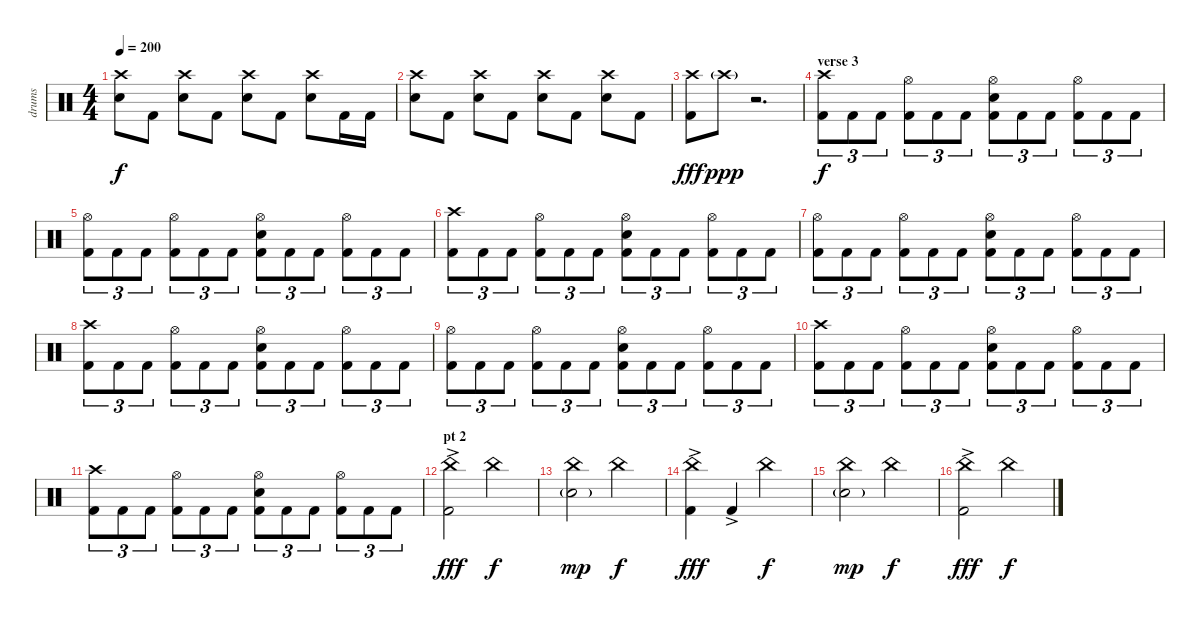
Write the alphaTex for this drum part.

\track ("drums" "drums") {instrument percussion}
\staff {score}
\articulation defaults
\ts (4 4)
\tempo 200
\clef neutral
\ks c
("Crash high (hit)" "Electric Snare (hit)").8{dy f} "Kick (hit) 2".8 ("Crash high (hit)" "Electric Snare (hit)").8 "Kick (hit) 2".8 ("Crash high (hit)" "Electric Snare (hit)").8 "Kick (hit) 2".8 ("Crash high (hit)" "Electric Snare (hit)").8 "Kick (hit) 2".16 "Kick (hit) 2".16 |
("Crash high (hit)" "Electric Snare (hit)").8 "Kick (hit) 2".8 ("Crash high (hit)" "Electric Snare (hit)").8 "Kick (hit) 2".8 ("Crash high (hit)" "Electric Snare (hit)").8 "Kick (hit) 2".8 ("Crash high (hit)" "Electric Snare (hit)").8 "Kick (hit) 2".8 |
("Crash high (hit)"{pm} "Kick (hit) 2").8{dy fff} "Crash high (hit)"{g}.8{dy ppp} r.2{d} |
\section ("" "verse 3")
("Crash high (hit)" "Kick (hit) 2").8{tu (3 2) dy f} "Kick (hit) 2".8{tu (3 2)} "Kick (hit) 2".8{tu (3 2)} ("Hi-Hat (open)" "Kick (hit) 2").8{tu (3 2)} "Kick (hit) 2".8{tu (3 2)} "Kick (hit) 2".8{tu (3 2)} ("Hi-Hat (open)" "Electric Snare (hit)" "Kick (hit) 2").8{tu (3 2)} "Kick (hit) 2".8{tu (3 2)} "Kick (hit) 2".8{tu (3 2)} ("Hi-Hat (open)" "Kick (hit) 2").8{tu (3 2)} "Kick (hit) 2".8{tu (3 2)} "Kick (hit) 2".8{tu (3 2)} |
("Hi-Hat (open)" "Kick (hit) 2").8{tu (3 2)} "Kick (hit) 2".8{tu (3 2)} "Kick (hit) 2".8{tu (3 2)} ("Hi-Hat (open)" "Kick (hit) 2").8{tu (3 2)} "Kick (hit) 2".8{tu (3 2)} "Kick (hit) 2".8{tu (3 2)} ("Hi-Hat (open)" "Electric Snare (hit)" "Kick (hit) 2").8{tu (3 2)} "Kick (hit) 2".8{tu (3 2)} "Kick (hit) 2".8{tu (3 2)} ("Hi-Hat (open)" "Kick (hit) 2").8{tu (3 2)} "Kick (hit) 2".8{tu (3 2)} "Kick (hit) 2".8{tu (3 2)} |
("Crash high (hit)" "Kick (hit) 2").8{tu (3 2)} "Kick (hit) 2".8{tu (3 2)} "Kick (hit) 2".8{tu (3 2)} ("Hi-Hat (open)" "Kick (hit) 2").8{tu (3 2)} "Kick (hit) 2".8{tu (3 2)} "Kick (hit) 2".8{tu (3 2)} ("Hi-Hat (open)" "Electric Snare (hit)" "Kick (hit) 2").8{tu (3 2)} "Kick (hit) 2".8{tu (3 2)} "Kick (hit) 2".8{tu (3 2)} ("Hi-Hat (open)" "Kick (hit) 2").8{tu (3 2)} "Kick (hit) 2".8{tu (3 2)} "Kick (hit) 2".8{tu (3 2)} |
("Hi-Hat (open)" "Kick (hit) 2").8{tu (3 2)} "Kick (hit) 2".8{tu (3 2)} "Kick (hit) 2".8{tu (3 2)} ("Hi-Hat (open)" "Kick (hit) 2").8{tu (3 2)} "Kick (hit) 2".8{tu (3 2)} "Kick (hit) 2".8{tu (3 2)} ("Hi-Hat (open)" "Electric Snare (hit)" "Kick (hit) 2").8{tu (3 2)} "Kick (hit) 2".8{tu (3 2)} "Kick (hit) 2".8{tu (3 2)} ("Hi-Hat (open)" "Kick (hit) 2").8{tu (3 2)} "Kick (hit) 2".8{tu (3 2)} "Kick (hit) 2".8{tu (3 2)} |
("Crash high (hit)" "Kick (hit) 2").8{tu (3 2)} "Kick (hit) 2".8{tu (3 2)} "Kick (hit) 2".8{tu (3 2)} ("Hi-Hat (open)" "Kick (hit) 2").8{tu (3 2)} "Kick (hit) 2".8{tu (3 2)} "Kick (hit) 2".8{tu (3 2)} ("Hi-Hat (open)" "Electric Snare (hit)" "Kick (hit) 2").8{tu (3 2)} "Kick (hit) 2".8{tu (3 2)} "Kick (hit) 2".8{tu (3 2)} ("Hi-Hat (open)" "Kick (hit) 2").8{tu (3 2)} "Kick (hit) 2".8{tu (3 2)} "Kick (hit) 2".8{tu (3 2)} |
("Hi-Hat (open)" "Kick (hit) 2").8{tu (3 2)} "Kick (hit) 2".8{tu (3 2)} "Kick (hit) 2".8{tu (3 2)} ("Hi-Hat (open)" "Kick (hit) 2").8{tu (3 2)} "Kick (hit) 2".8{tu (3 2)} "Kick (hit) 2".8{tu (3 2)} ("Hi-Hat (open)" "Electric Snare (hit)" "Kick (hit) 2").8{tu (3 2)} "Kick (hit) 2".8{tu (3 2)} "Kick (hit) 2".8{tu (3 2)} ("Hi-Hat (open)" "Kick (hit) 2").8{tu (3 2)} "Kick (hit) 2".8{tu (3 2)} "Kick (hit) 2".8{tu (3 2)} |
("Crash high (hit)" "Kick (hit) 2").8{tu (3 2)} "Kick (hit) 2".8{tu (3 2)} "Kick (hit) 2".8{tu (3 2)} ("Hi-Hat (open)" "Kick (hit) 2").8{tu (3 2)} "Kick (hit) 2".8{tu (3 2)} "Kick (hit) 2".8{tu (3 2)} ("Hi-Hat (open)" "Electric Snare (hit)" "Kick (hit) 2").8{tu (3 2)} "Kick (hit) 2".8{tu (3 2)} "Kick (hit) 2".8{tu (3 2)} ("Hi-Hat (open)" "Kick (hit) 2").8{tu (3 2)} "Kick (hit) 2".8{tu (3 2)} "Kick (hit) 2".8{tu (3 2)} |
("Crash high (hit)" "Kick (hit) 2").8{tu (3 2)} "Kick (hit) 2".8{tu (3 2)} "Kick (hit) 2".8{tu (3 2)} ("Hi-Hat (open)" "Kick (hit) 2").8{tu (3 2)} "Kick (hit) 2".8{tu (3 2)} "Kick (hit) 2".8{tu (3 2)} ("Hi-Hat (open)" "Electric Snare (hit)" "Kick (hit) 2").8{tu (3 2)} "Kick (hit) 2".8{tu (3 2)} "Kick (hit) 2".8{tu (3 2)} ("Hi-Hat (open)" "Kick (hit) 2").8{tu (3 2)} "Kick (hit) 2".8{tu (3 2)} "Kick (hit) 2".8{tu (3 2)} |
\section ("" "pt 2")
("China (hit)" "Kick (hit) 2"{ac}).2{dy fff} "China (hit)".2{dy f} |
("China (hit)" "Snare (hit) 2"{g}).2{dy mp} "China (hit)".2{dy f} |
("China (hit)" "Kick (hit) 2"{ac}).4{dy fff} "Kick (hit) 2"{ac}.4 "China (hit)".2{dy f} |
("China (hit)" "Snare (hit) 2"{g}).2{dy mp} "China (hit)".2{dy f} |
("China (hit)" "Kick (hit) 2"{ac}).2{dy fff} "China (hit)".2{dy f}
